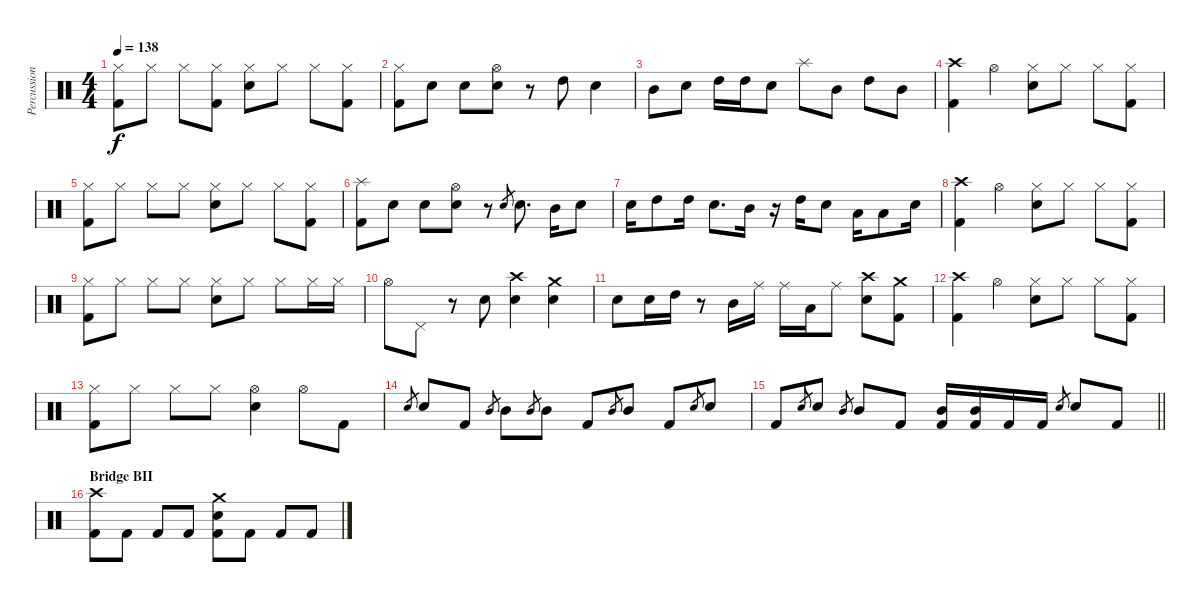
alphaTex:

\track ("Percussion" "Percussion") {instrument percussion}
\staff {score}
\articulation defaults
\ts (4 4)
\tempo 138
\clef neutral
\ks c
("Hi-Hat (closed)" "Kick (hit) 2").8{dy f} "Hi-Hat (closed)".8 "Hi-Hat (closed)".8 ("Hi-Hat (closed)" "Kick (hit) 2").8 ("Hi-Hat (closed)" "Electric Snare (hit)").8 "Hi-Hat (closed)".8 "Hi-Hat (closed)".8 ("Hi-Hat (closed)" "Kick (hit) 2").8 |
("Hi-Hat (closed)" "Kick (hit) 2").8 "Electric Snare (hit)".8 "Electric Snare (hit)".8 ("Hi-Hat (open)" "Electric Snare (hit)").8 r.8 "High Tom (hit)".8 "Electric Snare (hit)".4 |
"Mid Tom (hit)".8 "Electric Snare (hit)".8 "High Tom (hit)".16 "High Tom (hit)".16 "Electric Snare (hit)".8 "Splash (hit)".8 "Mid Tom (hit)".8 "High Tom (hit)".8 "Mid Tom (hit)".8 |
("Crash high (hit)" "Kick (hit) 2").4 "Hi-Hat (open)".4 ("Hi-Hat (closed)" "Electric Snare (hit)").8 "Hi-Hat (closed)".8 "Hi-Hat (closed)".8 ("Hi-Hat (closed)" "Kick (hit) 2").8 |
("Hi-Hat (closed)" "Kick (hit) 2").8 "Hi-Hat (closed)".8 "Hi-Hat (closed)".8 "Hi-Hat (closed)".8 ("Hi-Hat (closed)" "Electric Snare (hit)").8 "Hi-Hat (closed)".8 "Hi-Hat (closed)".8 ("Hi-Hat (closed)" "Kick (hit) 2").8 |
("Splash (hit)" "Kick (hit) 2").8 "Electric Snare (hit)".8 "Electric Snare (hit)".8 ("Hi-Hat (open)" "Electric Snare (hit)").8 r.8 "Electric Snare (hit)".8{gr} "Electric Snare (hit)".8{d} "Mid Tom (hit)".16 "Electric Snare (hit)".8 |
"Electric Snare (hit)".16 "High Tom (hit)".8 "High Tom (hit)".16 "Electric Snare (hit)".8{d} "Mid Tom (hit)".16 r.16 "High Tom (hit)".16 "Electric Snare (hit)".8 "Low Tom (hit)".16 "Low Tom (hit)".8 "Electric Snare (hit)".16 |
("Crash high (hit)" "Kick (hit) 2").4 "Hi-Hat (open)".4 ("Hi-Hat (closed)" "Electric Snare (hit)").8 "Hi-Hat (closed)".8 "Hi-Hat (closed)".8 ("Hi-Hat (closed)" "Kick (hit) 2").8 |
("Hi-Hat (closed)" "Kick (hit) 2").8 "Hi-Hat (closed)".8 "Hi-Hat (closed)".8 "Hi-Hat (closed)".8 ("Hi-Hat (closed)" "Electric Snare (hit)").8 "Hi-Hat (closed)".8 "Hi-Hat (closed)".8 "Hi-Hat (closed)".16 "Hi-Hat (closed)".16 |
"Hi-Hat (open)".8 "Pedal Hi-Hat (hit)".8 r.8 "Electric Snare (hit)".8 ("Crash high (hit)" "Electric Snare (hit)").4 ("Crash medium (hit)" "Electric Snare (hit)").4 |
"Electric Snare (hit)".8 "Electric Snare (hit)".16 "High Tom (hit)".16 r.8 "Mid Tom (hit)".16 "Ride (middle)".16 "Ride (middle)".16 "Low Tom (hit)".16 "Ride (middle)".8 ("Crash high (hit)" "Electric Snare (hit)").8 ("Crash medium (hit)" "Kick (hit) 2").8 |
("Crash high (hit)" "Kick (hit) 2").4 "Hi-Hat (open)".4 ("Hi-Hat (closed)" "Electric Snare (hit)").8 "Hi-Hat (closed)".8 "Hi-Hat (closed)".8 ("Hi-Hat (closed)" "Kick (hit) 2").8 |
("Hi-Hat (closed)" "Kick (hit) 2").8 "Hi-Hat (closed)".8 "Hi-Hat (closed)".8 "Hi-Hat (closed)".8 ("Hi-Hat (open)" "Electric Snare (hit)").4 "Hi-Hat (open)".8 "Kick (hit) 2".8 |
"Electric Snare (hit)".8{gr} "Electric Snare (hit)".8 "Kick (hit) 2".8 "Mid Tom (hit)".8{gr} "Mid Tom (hit)".8 "Mid Tom (hit)".8{gr} "Mid Tom (hit)".8 "Kick (hit) 2".8 "Mid Tom (hit)".8{gr} "Mid Tom (hit)".8 "Kick (hit) 2".8 "Electric Snare (hit)".8{gr} "Electric Snare (hit)".8 |
\barLineRight lightlight "Kick (hit) 2".8 "Electric Snare (hit)".8{gr} "Electric Snare (hit)".8 "Mid Tom (hit)".8{gr} "Mid Tom (hit)".8 "Kick (hit) 2".8
("Mid Tom (hit)" "Kick (hit) 2").16 ("Mid Tom (hit)" "Kick (hit) 2").16 "Kick (hit) 2".16 "Kick (hit) 2".16 "Electric Snare (hit)".8{gr} "Electric Snare (hit)".8 "Kick (hit) 2".8 |
\section ("" "Bridge BII")
("Crash high (hit)" "Kick (hit) 2").8 "Kick (hit) 2".8 "Kick (hit) 2".8 "Kick (hit) 2".8 ("Crash medium (hit)" "Electric Snare (hit)" "Kick (hit) 2").8 "Kick (hit) 2".8 "Kick (hit) 2".8 "Kick (hit) 2".8
